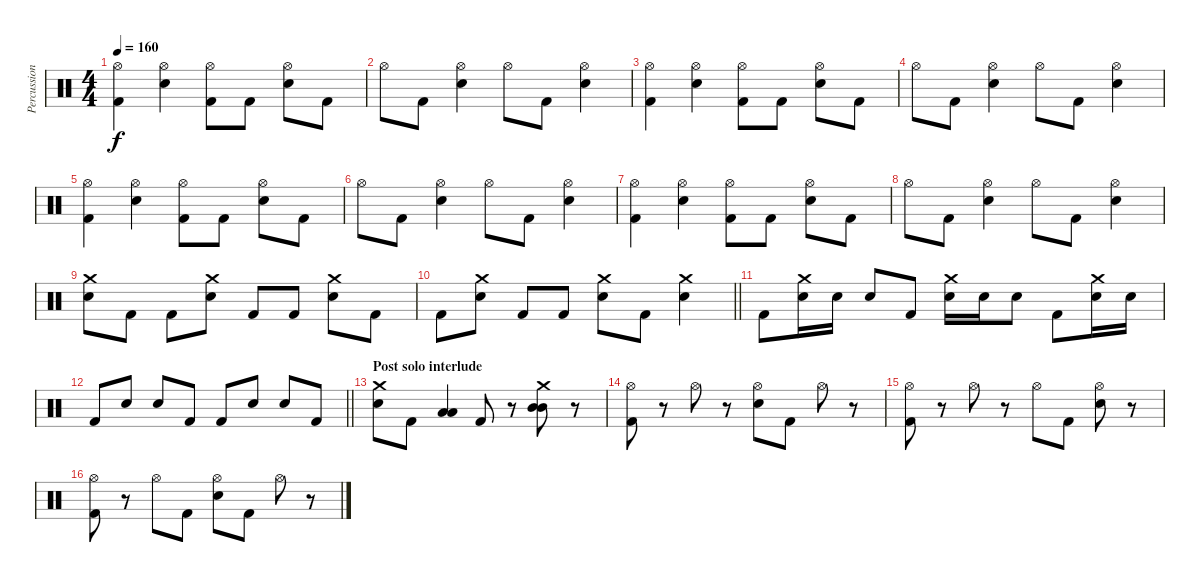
\track ("Percussion" "Percussion") {instrument percussion}
\staff {score}
\articulation defaults
\ts (4 4)
\tempo 160
\clef neutral
\ks c
("Hi-Hat (open)" "Kick (hit) 2").4{dy f} ("Hi-Hat (open)" "Electric Snare (hit)").4 ("Hi-Hat (open)" "Kick (hit) 2").8 "Kick (hit) 2".8 ("Hi-Hat (open)" "Electric Snare (hit)").8 "Kick (hit) 2".8 |
"Hi-Hat (open)".8 "Kick (hit) 2".8 ("Hi-Hat (open)" "Electric Snare (hit)").4 "Hi-Hat (open)".8 "Kick (hit) 2".8 ("Hi-Hat (open)" "Electric Snare (hit)").4 |
("Hi-Hat (open)" "Kick (hit) 2").4 ("Hi-Hat (open)" "Electric Snare (hit)").4 ("Hi-Hat (open)" "Kick (hit) 2").8 "Kick (hit) 2".8 ("Hi-Hat (open)" "Electric Snare (hit)").8 "Kick (hit) 2".8 |
"Hi-Hat (open)".8 "Kick (hit) 2".8 ("Hi-Hat (open)" "Electric Snare (hit)").4 "Hi-Hat (open)".8 "Kick (hit) 2".8 ("Hi-Hat (open)" "Electric Snare (hit)").4 |
("Hi-Hat (open)" "Kick (hit) 2").4 ("Hi-Hat (open)" "Electric Snare (hit)").4 ("Hi-Hat (open)" "Kick (hit) 2").8 "Kick (hit) 2".8 ("Hi-Hat (open)" "Electric Snare (hit)").8 "Kick (hit) 2".8 |
"Hi-Hat (open)".8 "Kick (hit) 2".8 ("Hi-Hat (open)" "Electric Snare (hit)").4 "Hi-Hat (open)".8 "Kick (hit) 2".8 ("Hi-Hat (open)" "Electric Snare (hit)").4 |
("Hi-Hat (open)" "Kick (hit) 2").4 ("Hi-Hat (open)" "Electric Snare (hit)").4 ("Hi-Hat (open)" "Kick (hit) 2").8 "Kick (hit) 2".8 ("Hi-Hat (open)" "Electric Snare (hit)").8 "Kick (hit) 2".8 |
"Hi-Hat (open)".8 "Kick (hit) 2".8 ("Hi-Hat (open)" "Electric Snare (hit)").4 "Hi-Hat (open)".8 "Kick (hit) 2".8 ("Hi-Hat (open)" "Electric Snare (hit)").4 |
("Crash medium (hit)" "Electric Snare (hit)").8 "Kick (hit) 2".8 "Kick (hit) 2".8 ("Crash medium (hit)" "Electric Snare (hit)").8 "Kick (hit) 2".8 "Kick (hit) 2".8 ("Crash medium (hit)" "Electric Snare (hit)").8 "Kick (hit) 2".8 |
\barLineRight lightlight "Kick (hit) 2".8
("Crash medium (hit)" "Electric Snare (hit)").8 "Kick (hit) 2".8 "Kick (hit) 2".8 ("Crash medium (hit)" "Electric Snare (hit)").8 "Kick (hit) 2".8 ("Crash medium (hit)" "Electric Snare (hit)").4 |
"Kick (hit) 2".8 ("Crash medium (hit)" "Electric Snare (hit)").16 "Electric Snare (hit)".16 "Electric Snare (hit)".8 "Kick (hit) 2".8 ("Crash medium (hit)" "Electric Snare (hit)").16 "Electric Snare (hit)".16 "Electric Snare (hit)".8 "Kick (hit) 2".8 ("Crash medium (hit)" "Electric Snare (hit)").16 "Electric Snare (hit)".16 |
\barLineRight lightlight "Kick (hit) 2".8 "Electric Snare (hit)".8 "Electric Snare (hit)".8 "Kick (hit) 2".8 "Kick (hit) 2".8 "Electric Snare (hit)".8 "Electric Snare (hit)".8 "Kick (hit) 2".8
|
\section ("" "Post solo interlude")
("Crash medium (hit)" "Electric Snare (hit)").8 "Kick (hit) 2".8 ("Low Tom (hit)" "Low Tom (hit)").4 "Kick (hit) 2".8 r.8 ("Crash medium (hit)" "Mid Tom (hit)" "Mid Tom (hit)").8 r.8 |
("Hi-Hat (open)" "Kick (hit) 2").8 r.8 "Hi-Hat (open)".8 r.8 ("Hi-Hat (open)" "Electric Snare (hit)").8 "Kick (hit) 2".8 "Hi-Hat (open)".8 r.8 |
("Hi-Hat (open)" "Kick (hit) 2").8 r.8 "Hi-Hat (open)".8 r.8 "Hi-Hat (open)".8 "Kick (hit) 2".8 ("Hi-Hat (open)" "Electric Snare (hit)").8 r.8 |
("Hi-Hat (open)" "Kick (hit) 2").8 r.8 "Hi-Hat (open)".8 "Kick (hit) 2".8 ("Hi-Hat (open)" "Electric Snare (hit)").8 "Kick (hit) 2".8 "Hi-Hat (open)".8 r.8
